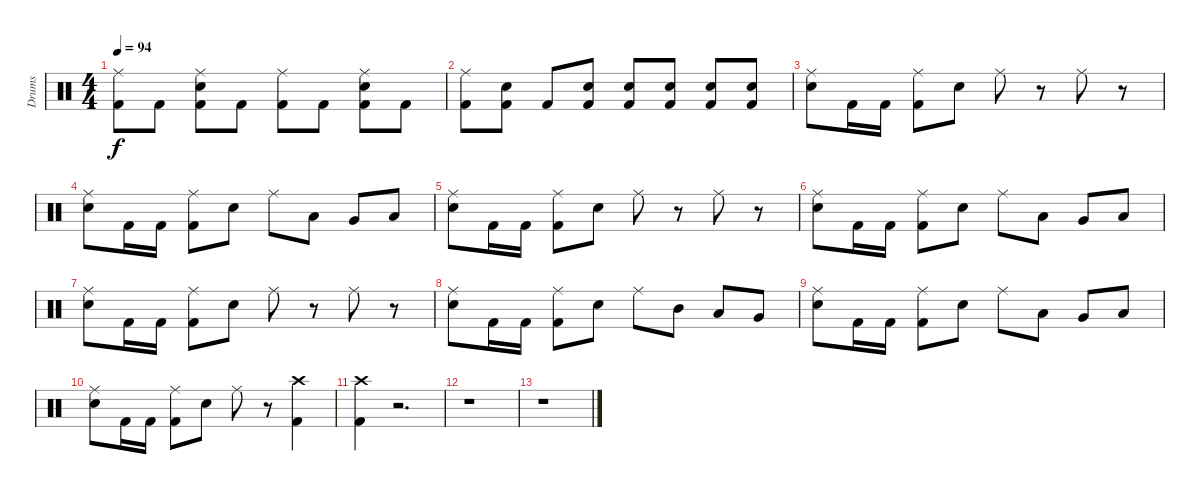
\track ("Drums" "Drums") {instrument percussion}
\staff {score}
\articulation defaults
\ts (4 4)
\tempo 94
\clef neutral
\ks c
("Ride (middle)" "Kick (hit) 2").8{dy f} "Kick (hit) 2".8 ("Ride (middle)" "Snare (hit) 2" "Kick (hit) 2").8 "Kick (hit) 2".8 ("Ride (middle)" "Kick (hit) 2").8 "Kick (hit) 2".8 ("Ride (middle)" "Snare (hit) 2" "Kick (hit) 2").8 "Kick (hit) 2".8 |
("Ride (middle)" "Kick (hit) 2").8 ("Snare (hit) 2" "Kick (hit) 2").8 "Kick (hit) 2".8 ("Snare (hit) 2" "Kick (hit) 2").8 ("Snare (hit) 2" "Kick (hit) 2").8 ("Snare (hit) 2" "Kick (hit) 2").8 ("Snare (hit) 2" "Kick (hit) 2").8 ("Snare (hit) 2" "Kick (hit) 2").8 |
("Ride (middle)" "Snare (hit) 2").8 "Kick (hit) 2".16 "Kick (hit) 2".16 ("Ride (middle)" "Kick (hit) 2").8 "Snare (hit) 2".8 "Ride (middle)".8 r.8 "Ride (middle)".8 r.8 |
("Ride (middle)" "Snare (hit) 2").8 "Kick (hit) 2".16 "Kick (hit) 2".16 ("Ride (middle)" "Kick (hit) 2").8 "Snare (hit) 2".8 "Ride (middle)".8 "Low Tom (hit)".8 "Very Low Tom (hit)".8 "Low Floor Tom (hit)".8 |
("Ride (middle)" "Snare (hit) 2").8 "Kick (hit) 2".16 "Kick (hit) 2".16 ("Ride (middle)" "Kick (hit) 2").8 "Snare (hit) 2".8 "Ride (middle)".8 r.8 "Ride (middle)".8 r.8 |
("Ride (middle)" "Snare (hit) 2").8 "Kick (hit) 2".16 "Kick (hit) 2".16 ("Ride (middle)" "Kick (hit) 2").8 "Snare (hit) 2".8 "Ride (middle)".8 "Low Tom (hit)".8 "Very Low Tom (hit)".8 "Low Floor Tom (hit)".8 |
("Ride (middle)" "Snare (hit) 2").8 "Kick (hit) 2".16 "Kick (hit) 2".16 ("Ride (middle)" "Kick (hit) 2").8 "Snare (hit) 2".8 "Ride (middle)".8 r.8 "Ride (middle)".8 r.8 |
("Ride (middle)" "Snare (hit) 2").8 "Kick (hit) 2".16 "Kick (hit) 2".16 ("Ride (middle)" "Kick (hit) 2").8 "Snare (hit) 2".8 "Ride (middle)".8 "Mid Tom (hit)".8 "Low Tom (hit)".8 "Very Low Tom (hit)".8 |
("Ride (middle)" "Snare (hit) 2").8 "Kick (hit) 2".16 "Kick (hit) 2".16 ("Ride (middle)" "Kick (hit) 2").8 "Snare (hit) 2".8 "Ride (middle)".8 "Low Tom (hit)".8 "Very Low Tom (hit)".8 "Low Floor Tom (hit)".8 |
("Ride (middle)" "Snare (hit) 2").8 "Kick (hit) 2".16 "Kick (hit) 2".16 ("Ride (middle)" "Kick (hit) 2").8 "Snare (hit) 2".8 "Ride (middle)".8 r.8 ("Crash high (hit)" "Kick (hit) 2").4 |
("Crash high (hit)" "Kick (hit) 2").4 r.2{d} |
r.1 |
r.1
